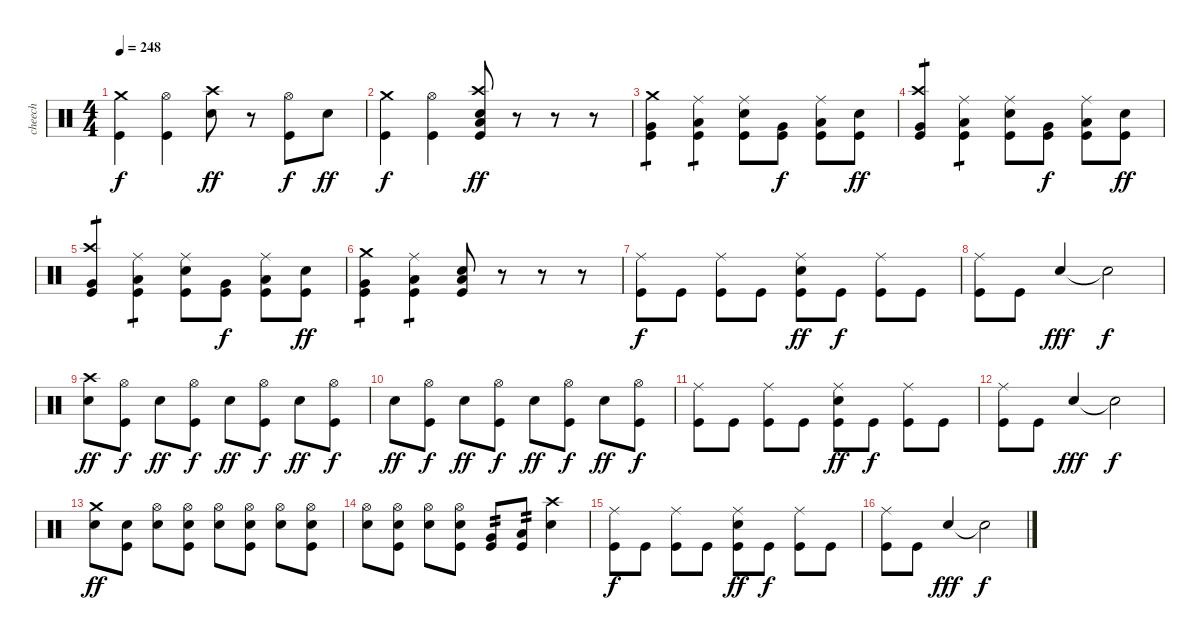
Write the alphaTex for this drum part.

\track ("cheech" "cheech") {instrument percussion}
\staff {score}
\articulation defaults
\ts (4 4)
\tempo 248
\clef neutral
\ks c
("Crash medium (hit)" "Kick (hit)").4{dy f} ("Hi-Hat (open)" "Kick (hit)").4 ("Crash high (hit)" "Electric Snare (hit)").8{dy ff} r.8 ("Hi-Hat (open)" "Kick (hit)").8{dy f} "Electric Snare (hit)".8{dy ff} |
("Crash medium (hit)" "Kick (hit)").4{dy f} ("Hi-Hat (open)" "Kick (hit)").4 ("Crash high (hit)" "Electric Snare (hit)" "Low Floor Tom (hit)" "Kick (hit)").8{dy ff} r.8 r.8 r.8 |
("Crash medium (hit)" "Very Low Tom (hit)" "Kick (hit)").4{tp 1} ("Ride (middle)" "Low Floor Tom (hit)" "Kick (hit)").4{tp 1} ("Ride (middle)" "Electric Snare (hit)" "Kick (hit)").8 ("Very Low Tom (hit)" "Kick (hit)").8{dy f} ("Ride (middle)" "Low Floor Tom (hit)" "Kick (hit)").8 ("Electric Snare (hit)" "Kick (hit)").8{dy ff} |
("Crash high (hit)" "Very Low Tom (hit)" "Kick (hit)").4{tp 1} ("Ride (middle)" "Low Floor Tom (hit)" "Kick (hit)").4{tp 1} ("Ride (middle)" "Electric Snare (hit)" "Kick (hit)").8 ("Very Low Tom (hit)" "Kick (hit)").8{dy f} ("Ride (middle)" "Low Floor Tom (hit)" "Kick (hit)").8 ("Electric Snare (hit)" "Kick (hit)").8{dy ff} |
("Crash high (hit)" "Very Low Tom (hit)" "Kick (hit)").4{tp 1} ("Ride (middle)" "Low Floor Tom (hit)" "Kick (hit)").4{tp 1} ("Ride (middle)" "Electric Snare (hit)" "Kick (hit)").8 ("Very Low Tom (hit)" "Kick (hit)").8{dy f} ("Ride (middle)" "Low Floor Tom (hit)" "Kick (hit)").8 ("Electric Snare (hit)" "Kick (hit)").8{dy ff} |
("Crash medium (hit)" "Very Low Tom (hit)" "Kick (hit)").4{tp 1} ("Ride (middle)" "Low Floor Tom (hit)" "Kick (hit)").4{tp 1} ("Electric Snare (hit)" "Low Floor Tom (hit)" "Kick (hit)").8 r.8 r.8 r.8 |
("Ride (middle)" "Kick (hit)").8{dy f} "Kick (hit)".8 ("Ride (middle)" "Kick (hit)").8 "Kick (hit)".8 ("Ride (middle)" "Electric Snare (hit)" "Kick (hit)").8{dy ff} "Kick (hit)".8{dy f} ("Ride (middle)" "Kick (hit)").8 "Kick (hit)".8 |
("Ride (middle)" "Kick (hit)").8 "Kick (hit)".8 "Electric Snare (hit)".4{dy fff beam Up} "Electric Snare (hit)"{t}.2{dy f} |
("Crash high (hit)" "Electric Snare (hit)").8{dy ff} ("Hi-Hat (open)" "Kick (hit)").8{dy f} "Electric Snare (hit)".8{dy ff} ("Hi-Hat (open)" "Kick (hit)").8{dy f} "Electric Snare (hit)".8{dy ff} ("Hi-Hat (open)" "Kick (hit)").8{dy f} "Electric Snare (hit)".8{dy ff} ("Hi-Hat (open)" "Kick (hit)").8{dy f} |
"Electric Snare (hit)".8{dy ff} ("Hi-Hat (open)" "Kick (hit)").8{dy f} "Electric Snare (hit)".8{dy ff} ("Hi-Hat (open)" "Kick (hit)").8{dy f} "Electric Snare (hit)".8{dy ff} ("Hi-Hat (open)" "Kick (hit)").8{dy f} "Electric Snare (hit)".8{dy ff} ("Hi-Hat (open)" "Kick (hit)").8{dy f} |
("Ride (middle)" "Kick (hit)").8 "Kick (hit)".8 ("Ride (middle)" "Kick (hit)").8 "Kick (hit)".8 ("Ride (middle)" "Electric Snare (hit)" "Kick (hit)").8{dy ff} "Kick (hit)".8{dy f} ("Ride (middle)" "Kick (hit)").8 "Kick (hit)".8 |
("Ride (middle)" "Kick (hit)").8 "Kick (hit)".8 "Electric Snare (hit)".4{dy fff beam Up} "Electric Snare (hit)"{t}.2{dy f} |
("Crash medium (hit)" "Electric Snare (hit)").8{dy ff} ("Electric Snare (hit)" "Kick (hit)").8 ("Hi-Hat (open)" "Electric Snare (hit)").8 ("Hi-Hat (open)" "Electric Snare (hit)" "Kick (hit)").8 ("Hi-Hat (open)" "Electric Snare (hit)").8 ("Hi-Hat (open)" "Electric Snare (hit)" "Kick (hit)").8 ("Hi-Hat (open)" "Electric Snare (hit)").8 ("Hi-Hat (open)" "Electric Snare (hit)" "Kick (hit)").8 |
("Hi-Hat (open)" "Electric Snare (hit)").8 ("Hi-Hat (open)" "Electric Snare (hit)" "Kick (hit)").8 ("Hi-Hat (open)" "Electric Snare (hit)").8 ("Hi-Hat (open)" "Electric Snare (hit)" "Kick (hit)").8 ("Very Low Tom (hit)" "Kick (hit)").8{tp 2} ("Low Floor Tom (hit)" "Kick (hit)").8{tp 2} ("Crash high (hit)" "Electric Snare (hit)").4 |
("Ride (middle)" "Kick (hit)").8{dy f} "Kick (hit)".8 ("Ride (middle)" "Kick (hit)").8 "Kick (hit)".8 ("Ride (middle)" "Electric Snare (hit)" "Kick (hit)").8{dy ff} "Kick (hit)".8{dy f} ("Ride (middle)" "Kick (hit)").8 "Kick (hit)".8 |
("Ride (middle)" "Kick (hit)").8 "Kick (hit)".8 "Electric Snare (hit)".4{dy fff beam Up} "Electric Snare (hit)"{t}.2{dy f}
